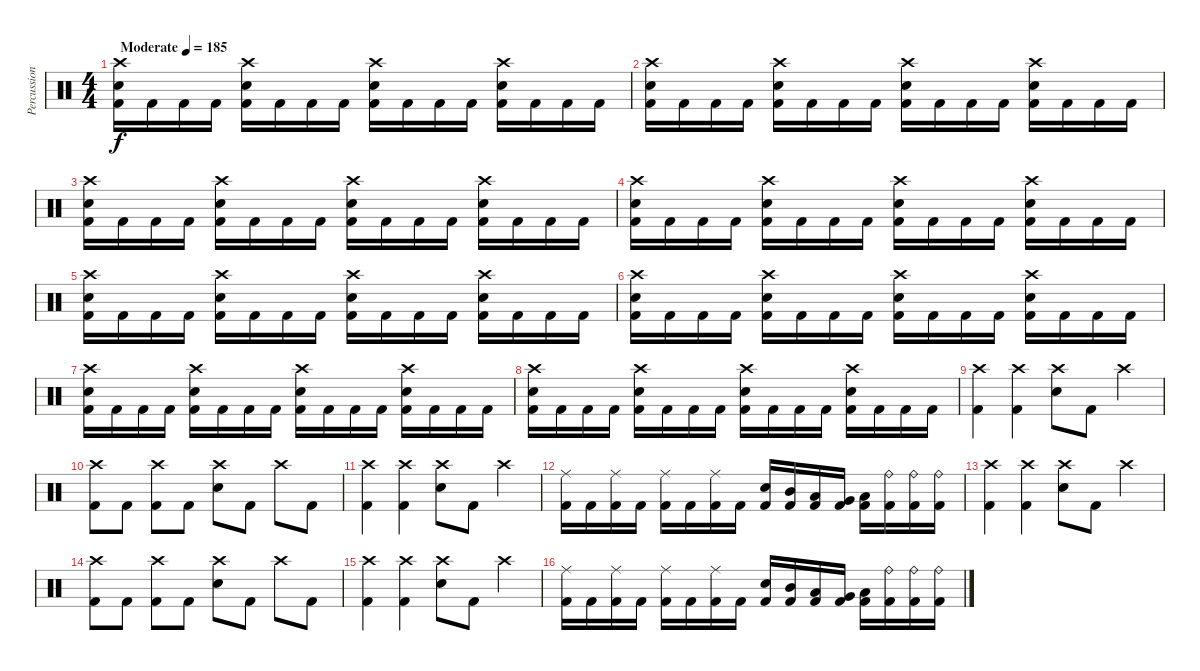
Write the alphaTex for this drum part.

\track ("Percussions" "Percussion") {instrument percussion}
\staff {score}
\articulation defaults
\ts (4 4)
\tempo (185 "Moderate")
\clef neutral
\ks c
("Crash high (hit)" "Snare (hit) 2" "Kick (hit) 2").16{dy f} "Kick (hit) 2".16 "Kick (hit) 2".16 "Kick (hit) 2".16 ("Crash high (hit)" "Snare (hit) 2" "Kick (hit) 2").16 "Kick (hit) 2".16 "Kick (hit) 2".16 "Kick (hit) 2".16 ("Crash high (hit)" "Snare (hit) 2" "Kick (hit) 2").16 "Kick (hit) 2".16 "Kick (hit) 2".16 "Kick (hit) 2".16 ("Crash high (hit)" "Snare (hit) 2" "Kick (hit) 2").16 "Kick (hit) 2".16 "Kick (hit) 2".16 "Kick (hit) 2".16 |
("Crash high (hit)" "Snare (hit) 2" "Kick (hit) 2").16 "Kick (hit) 2".16 "Kick (hit) 2".16 "Kick (hit) 2".16 ("Crash high (hit)" "Snare (hit) 2" "Kick (hit) 2").16 "Kick (hit) 2".16 "Kick (hit) 2".16 "Kick (hit) 2".16 ("Crash high (hit)" "Snare (hit) 2" "Kick (hit) 2").16 "Kick (hit) 2".16 "Kick (hit) 2".16 "Kick (hit) 2".16 ("Crash high (hit)" "Snare (hit) 2" "Kick (hit) 2").16 "Kick (hit) 2".16 "Kick (hit) 2".16 "Kick (hit) 2".16 |
("Crash high (hit)" "Snare (hit) 2" "Kick (hit) 2").16 "Kick (hit) 2".16 "Kick (hit) 2".16 "Kick (hit) 2".16 ("Crash high (hit)" "Snare (hit) 2" "Kick (hit) 2").16 "Kick (hit) 2".16 "Kick (hit) 2".16 "Kick (hit) 2".16 ("Crash high (hit)" "Snare (hit) 2" "Kick (hit) 2").16 "Kick (hit) 2".16 "Kick (hit) 2".16 "Kick (hit) 2".16 ("Crash high (hit)" "Snare (hit) 2" "Kick (hit) 2").16 "Kick (hit) 2".16 "Kick (hit) 2".16 "Kick (hit) 2".16 |
("Crash high (hit)" "Snare (hit) 2" "Kick (hit) 2").16 "Kick (hit) 2".16 "Kick (hit) 2".16 "Kick (hit) 2".16 ("Crash high (hit)" "Snare (hit) 2" "Kick (hit) 2").16 "Kick (hit) 2".16 "Kick (hit) 2".16 "Kick (hit) 2".16 ("Crash high (hit)" "Snare (hit) 2" "Kick (hit) 2").16 "Kick (hit) 2".16 "Kick (hit) 2".16 "Kick (hit) 2".16 ("Crash high (hit)" "Snare (hit) 2" "Kick (hit) 2").16 "Kick (hit) 2".16 "Kick (hit) 2".16 "Kick (hit) 2".16 |
("Crash high (hit)" "Snare (hit) 2" "Kick (hit) 2").16 "Kick (hit) 2".16 "Kick (hit) 2".16 "Kick (hit) 2".16 ("Crash high (hit)" "Snare (hit) 2" "Kick (hit) 2").16 "Kick (hit) 2".16 "Kick (hit) 2".16 "Kick (hit) 2".16 ("Crash high (hit)" "Snare (hit) 2" "Kick (hit) 2").16 "Kick (hit) 2".16 "Kick (hit) 2".16 "Kick (hit) 2".16 ("Crash high (hit)" "Snare (hit) 2" "Kick (hit) 2").16 "Kick (hit) 2".16 "Kick (hit) 2".16 "Kick (hit) 2".16 |
("Crash high (hit)" "Snare (hit) 2" "Kick (hit) 2").16 "Kick (hit) 2".16 "Kick (hit) 2".16 "Kick (hit) 2".16 ("Crash high (hit)" "Snare (hit) 2" "Kick (hit) 2").16 "Kick (hit) 2".16 "Kick (hit) 2".16 "Kick (hit) 2".16 ("Crash high (hit)" "Snare (hit) 2" "Kick (hit) 2").16 "Kick (hit) 2".16 "Kick (hit) 2".16 "Kick (hit) 2".16 ("Crash high (hit)" "Snare (hit) 2" "Kick (hit) 2").16 "Kick (hit) 2".16 "Kick (hit) 2".16 "Kick (hit) 2".16 |
("Crash high (hit)" "Snare (hit) 2" "Kick (hit) 2").16 "Kick (hit) 2".16 "Kick (hit) 2".16 "Kick (hit) 2".16 ("Crash high (hit)" "Snare (hit) 2" "Kick (hit) 2").16 "Kick (hit) 2".16 "Kick (hit) 2".16 "Kick (hit) 2".16 ("Crash high (hit)" "Snare (hit) 2" "Kick (hit) 2").16 "Kick (hit) 2".16 "Kick (hit) 2".16 "Kick (hit) 2".16 ("Crash high (hit)" "Snare (hit) 2" "Kick (hit) 2").16 "Kick (hit) 2".16 "Kick (hit) 2".16 "Kick (hit) 2".16 |
("Crash high (hit)" "Snare (hit) 2" "Kick (hit) 2").16 "Kick (hit) 2".16 "Kick (hit) 2".16 "Kick (hit) 2".16 ("Crash high (hit)" "Snare (hit) 2" "Kick (hit) 2").16 "Kick (hit) 2".16 "Kick (hit) 2".16 "Kick (hit) 2".16 ("Crash high (hit)" "Snare (hit) 2" "Kick (hit) 2").16 "Kick (hit) 2".16 "Kick (hit) 2".16 "Kick (hit) 2".16 ("Crash high (hit)" "Snare (hit) 2" "Kick (hit) 2").16 "Kick (hit) 2".16 "Kick (hit) 2".16 "Kick (hit) 2".16 |
("Crash high (hit)" "Kick (hit) 2").4 ("Crash high (hit)" "Kick (hit) 2").4 ("Crash high (hit)" "Snare (hit) 2").8 "Kick (hit) 2".8 "Crash high (hit)".4 |
("Crash high (hit)" "Kick (hit) 2").8 "Kick (hit) 2".8 ("Crash high (hit)" "Kick (hit) 2").8 "Kick (hit) 2".8 ("Crash high (hit)" "Snare (hit) 2").8 "Kick (hit) 2".8 "Crash high (hit)".8 "Kick (hit) 2".8 |
("Crash high (hit)" "Kick (hit) 2").4 ("Crash high (hit)" "Kick (hit) 2").4 ("Crash high (hit)" "Snare (hit) 2").8 "Kick (hit) 2".8 "Crash high (hit)".4 |
("Ride (middle)" "Kick (hit) 2").16 "Kick (hit) 2".16 ("Ride (middle)" "Kick (hit) 2").16 "Kick (hit) 2".16 ("Ride (middle)" "Kick (hit) 2").16 "Kick (hit) 2".16 ("Ride (middle)" "Kick (hit) 2").16 "Kick (hit) 2".16 ("Snare (hit) 2" "Kick (hit) 2").16 ("Mid Tom (hit)" "Kick (hit) 2").16 ("Low Tom (hit)" "Kick (hit) 2").16 ("Very Low Tom (hit)" "Kick (hit) 2").16 ("Low Floor Tom (hit)" "Kick (hit) 2").16 ("Ride (bell)" "Kick (hit) 2").16 ("Ride (bell)" "Kick (hit) 2").16 ("Ride (bell)" "Kick (hit) 2").16 |
("Crash high (hit)" "Kick (hit) 2").4 ("Crash high (hit)" "Kick (hit) 2").4 ("Crash high (hit)" "Snare (hit) 2").8 "Kick (hit) 2".8 "Crash high (hit)".4 |
("Crash high (hit)" "Kick (hit) 2").8 "Kick (hit) 2".8 ("Crash high (hit)" "Kick (hit) 2").8 "Kick (hit) 2".8 ("Crash high (hit)" "Snare (hit) 2").8 "Kick (hit) 2".8 "Crash high (hit)".8 "Kick (hit) 2".8 |
("Crash high (hit)" "Kick (hit) 2").4 ("Crash high (hit)" "Kick (hit) 2").4 ("Crash high (hit)" "Snare (hit) 2").8 "Kick (hit) 2".8 "Crash high (hit)".4 |
("Ride (middle)" "Kick (hit) 2").16 "Kick (hit) 2".16 ("Ride (middle)" "Kick (hit) 2").16 "Kick (hit) 2".16 ("Ride (middle)" "Kick (hit) 2").16 "Kick (hit) 2".16 ("Ride (middle)" "Kick (hit) 2").16 "Kick (hit) 2".16 ("Snare (hit) 2" "Kick (hit) 2").16 ("Mid Tom (hit)" "Kick (hit) 2").16 ("Low Tom (hit)" "Kick (hit) 2").16 ("Very Low Tom (hit)" "Kick (hit) 2").16 ("Low Floor Tom (hit)" "Kick (hit) 2").16 ("Ride (bell)" "Kick (hit) 2").16 ("Ride (bell)" "Kick (hit) 2").16 ("Ride (bell)" "Kick (hit) 2").16
